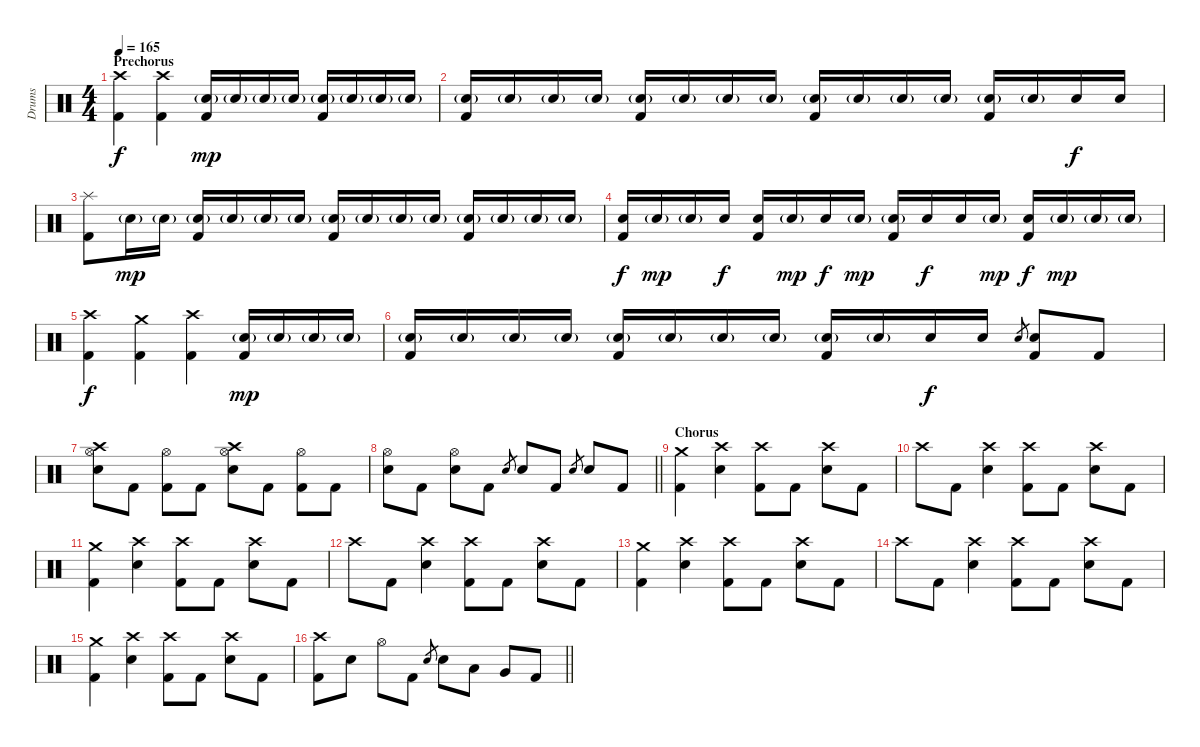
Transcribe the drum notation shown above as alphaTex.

\track ("Drums" "Drums") {instrument percussion}
\staff {score}
\articulation defaults
\ts (4 4)
\section ("" "Prechorus")
\tempo 165
\clef neutral
\ks c
("Crash high (hit)" "Kick (hit) 2").4{dy f} ("Crash high (hit)" "Kick (hit) 2").4 ("Electric Snare (hit)"{g} "Kick (hit) 2").16{dy mp} "Electric Snare (hit)"{g}.16 "Electric Snare (hit)"{g}.16 "Electric Snare (hit)"{g}.16 ("Electric Snare (hit)"{g} "Kick (hit) 2").16 "Electric Snare (hit)"{g}.16 "Electric Snare (hit)"{g}.16 "Electric Snare (hit)"{g}.16 |
("Electric Snare (hit)"{g} "Kick (hit) 2").16 "Electric Snare (hit)"{g}.16 "Electric Snare (hit)"{g}.16 "Electric Snare (hit)"{g}.16 ("Electric Snare (hit)"{g} "Kick (hit) 2").16 "Electric Snare (hit)"{g}.16 "Electric Snare (hit)"{g}.16 "Electric Snare (hit)"{g}.16 ("Electric Snare (hit)"{g} "Kick (hit) 2").16 "Electric Snare (hit)"{g}.16 "Electric Snare (hit)"{g}.16 "Electric Snare (hit)"{g}.16 ("Electric Snare (hit)"{g} "Kick (hit) 2").16 "Electric Snare (hit)"{g}.16 "Electric Snare (hit)".16{dy f} "Electric Snare (hit)".16 |
("Splash (hit)" "Kick (hit) 2").8 "Electric Snare (hit)"{g}.16{dy mp} "Electric Snare (hit)"{g}.16 ("Electric Snare (hit)"{g} "Kick (hit) 2").16 "Electric Snare (hit)"{g}.16 "Electric Snare (hit)"{g}.16 "Electric Snare (hit)"{g}.16 ("Electric Snare (hit)"{g} "Kick (hit) 2").16 "Electric Snare (hit)"{g}.16 "Electric Snare (hit)"{g}.16 "Electric Snare (hit)"{g}.16 ("Electric Snare (hit)"{g} "Kick (hit) 2").16 "Electric Snare (hit)"{g}.16 "Electric Snare (hit)"{g}.16 "Electric Snare (hit)"{g}.16 |
("Electric Snare (hit)" "Kick (hit) 2").16{dy f} "Electric Snare (hit)"{g}.16{dy mp} "Electric Snare (hit)"{g}.16 "Electric Snare (hit)".16{dy f} ("Electric Snare (hit)" "Kick (hit) 2").16 "Electric Snare (hit)"{g}.16{dy mp} "Electric Snare (hit)".16{dy f} "Electric Snare (hit)"{g}.16{dy mp} ("Electric Snare (hit)"{g} "Kick (hit) 2").16 "Electric Snare (hit)".16{dy f} "Electric Snare (hit)".16 "Electric Snare (hit)"{g}.16{dy mp} ("Electric Snare (hit)" "Kick (hit) 2").16{dy f} "Electric Snare (hit)"{g}.16{dy mp} "Electric Snare (hit)"{g}.16 "Electric Snare (hit)"{g}.16 |
("Crash high (hit)" "Kick (hit) 2").4{dy f} ("Crash medium (hit)" "Kick (hit) 2").4 ("Crash high (hit)" "Kick (hit) 2").4 ("Electric Snare (hit)"{g} "Kick (hit) 2").16{dy mp} "Electric Snare (hit)"{g}.16 "Electric Snare (hit)"{g}.16 "Electric Snare (hit)"{g}.16 |
("Electric Snare (hit)"{g} "Kick (hit) 2").16 "Electric Snare (hit)"{g}.16 "Electric Snare (hit)"{g}.16 "Electric Snare (hit)"{g}.16 ("Electric Snare (hit)"{g} "Kick (hit) 2").16 "Electric Snare (hit)"{g}.16 "Electric Snare (hit)"{g}.16 "Electric Snare (hit)"{g}.16 ("Electric Snare (hit)"{g} "Kick (hit) 2").16 "Electric Snare (hit)"{g}.16 "Electric Snare (hit)".16{dy f} "Electric Snare (hit)".16 "Electric Snare (hit)".8{gr} ("Electric Snare (hit)" "Kick (hit) 2").8 "Kick (hit) 2".8 |
("Crash high (hit)" "Hi-Hat (open)" "Electric Snare (hit)").8 "Kick (hit) 2".8 ("Hi-Hat (open)" "Kick (hit) 2").8 "Kick (hit) 2".8 ("Crash high (hit)" "Hi-Hat (open)" "Electric Snare (hit)").8 "Kick (hit) 2".8 ("Hi-Hat (open)" "Kick (hit) 2").8 "Kick (hit) 2".8 |
\barLineRight lightlight
("Hi-Hat (open)" "Electric Snare (hit)").8 "Kick (hit) 2".8 ("Hi-Hat (open)" "Electric Snare (hit)").8 "Kick (hit) 2".8 "Electric Snare (hit)".8{gr} "Electric Snare (hit)".8 "Kick (hit) 2".8 "Electric Snare (hit)".8{gr} "Electric Snare (hit)".8 "Kick (hit) 2".8 |
\section ("" "Chorus")
("Crash medium (hit)" "Kick (hit) 2").4 ("Crash high (hit)" "Electric Snare (hit)").4 ("Crash high (hit)" "Kick (hit) 2").8 "Kick (hit) 2".8 ("Crash high (hit)" "Electric Snare (hit)").8 "Kick (hit) 2".8 |
"Crash high (hit)".8 "Kick (hit) 2".8 ("Crash high (hit)" "Electric Snare (hit)").4 ("Crash high (hit)" "Kick (hit) 2").8 "Kick (hit) 2".8 ("Crash high (hit)" "Electric Snare (hit)").8 "Kick (hit) 2".8 |
("Crash medium (hit)" "Kick (hit) 2").4 ("Crash high (hit)" "Electric Snare (hit)").4 ("Crash high (hit)" "Kick (hit) 2").8 "Kick (hit) 2".8 ("Crash high (hit)" "Electric Snare (hit)").8 "Kick (hit) 2".8 |
"Crash high (hit)".8 "Kick (hit) 2".8 ("Crash high (hit)" "Electric Snare (hit)").4 ("Crash high (hit)" "Kick (hit) 2").8 "Kick (hit) 2".8 ("Crash high (hit)" "Electric Snare (hit)").8 "Kick (hit) 2".8 |
("Crash medium (hit)" "Kick (hit) 2").4 ("Crash high (hit)" "Electric Snare (hit)").4 ("Crash high (hit)" "Kick (hit) 2").8 "Kick (hit) 2".8 ("Crash high (hit)" "Electric Snare (hit)").8 "Kick (hit) 2".8 |
"Crash high (hit)".8 "Kick (hit) 2".8 ("Crash high (hit)" "Electric Snare (hit)").4 ("Crash high (hit)" "Kick (hit) 2").8 "Kick (hit) 2".8 ("Crash high (hit)" "Electric Snare (hit)").8 "Kick (hit) 2".8 |
("Crash medium (hit)" "Kick (hit) 2").4 ("Crash high (hit)" "Electric Snare (hit)").4 ("Crash high (hit)" "Kick (hit) 2").8 "Kick (hit) 2".8 ("Crash high (hit)" "Electric Snare (hit)").8 "Kick (hit) 2".8 |
\barLineRight lightlight
("Crash high (hit)" "Kick (hit) 2").8 "Electric Snare (hit)".8 "Hi-Hat (open)".8 "Kick (hit) 2".8 "Electric Snare (hit)".8{gr} "Electric Snare (hit)".8 "Low Tom (hit)".8 "Very Low Tom (hit)".8 "Kick (hit) 2".8
